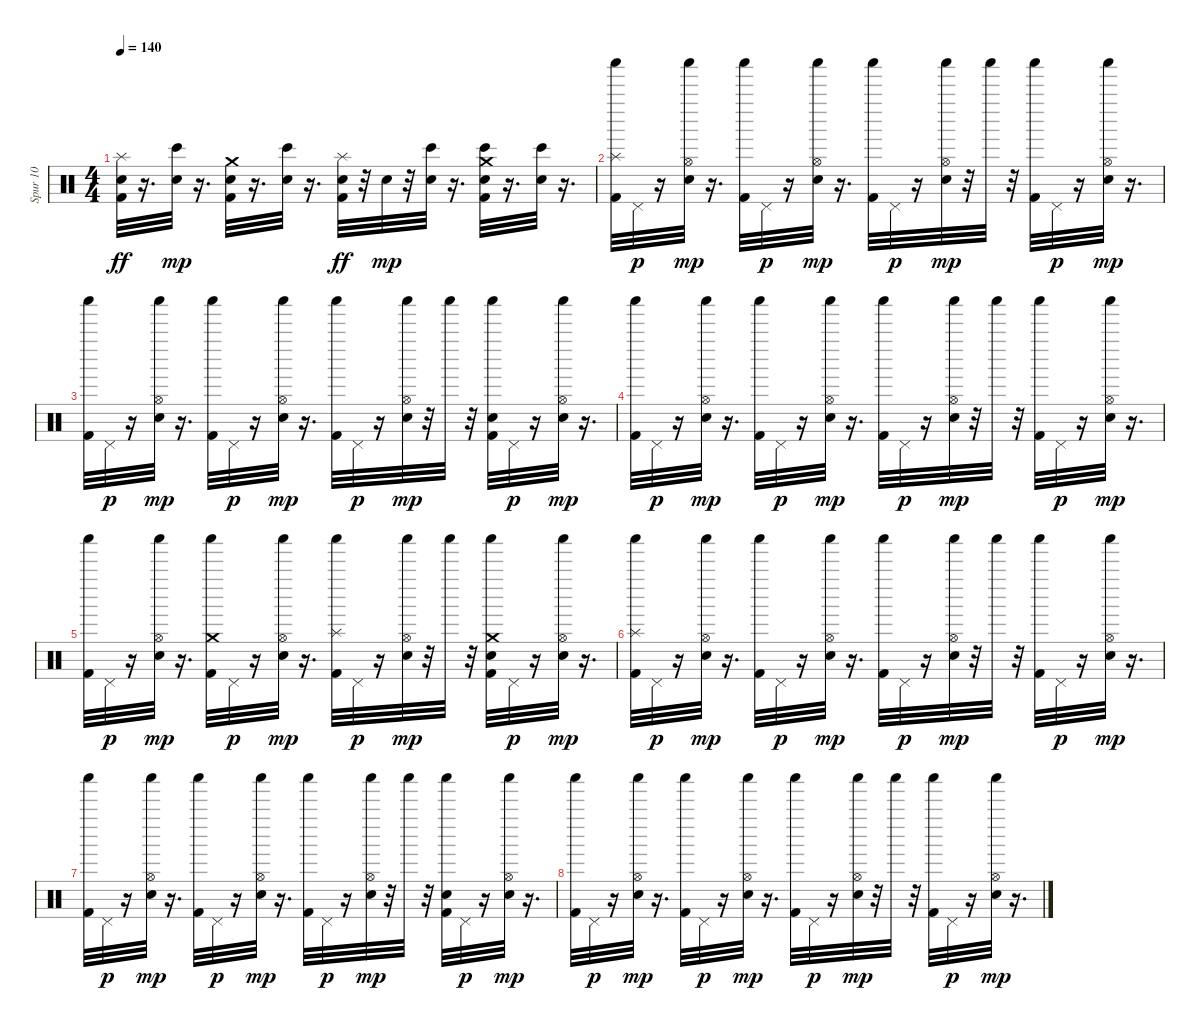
\track ("Spur 10" "Spur 10") {instrument percussion}
\staff {score}
\articulation defaults
\ts (4 4)
\tempo 140
\clef neutral
\ks c
("Kick (hit) 2" "Hand Clap (hit)" "Splash (hit)").32{dy ff} r.16{d} ("Bongo High (hit)" "Hand Clap (hit)").32{dy mp} r.16{d} ("Kick (hit) 2" "Hand Clap (hit)" "Crash medium (hit)").32 r.16{d} ("Bongo High (hit)" "Hand Clap (hit)").32 r.16{d} ("Kick (hit) 2" "Hand Clap (hit)" "Splash (hit)").32{dy ff} r.32 "Hand Clap (hit)".32{dy mp} r.32 ("Bongo High (hit)" "Hand Clap (hit)").32 r.16{d} ("Bongo High (hit)" "Kick (hit) 2" "Hand Clap (hit)" "Crash medium (hit)").32 r.16{d} ("Bongo High (hit)" "Hand Clap (hit)").32 r.16{d} |
("Kick (hit) 2" "Splash (hit)" "Shaker (hit)").32 "Pedal Hi-Hat (hit)".32{dy p} r.16 ("Hand Clap (hit)" "Hi-Hat (open)" "Shaker (hit)").32{dy mp} r.16{d} ("Kick (hit) 2" "Shaker (hit)").32 "Pedal Hi-Hat (hit)".32{dy p} r.16 ("Hand Clap (hit)" "Hi-Hat (open)" "Shaker (hit)").32{dy mp} r.16{d} ("Kick (hit) 2" "Shaker (hit)").32 "Pedal Hi-Hat (hit)".32{dy p} r.16 ("Hand Clap (hit)" "Hi-Hat (open)" "Shaker (hit)").32{dy mp} r.32 "Shaker (hit)".32 r.32 ("Kick (hit) 2" "Shaker (hit)").32 "Pedal Hi-Hat (hit)".32{dy p} r.16 ("Hand Clap (hit)" "Hi-Hat (open)" "Shaker (hit)").32{dy mp} r.16{d} |
("Kick (hit) 2" "Shaker (hit)").32 "Pedal Hi-Hat (hit)".32{dy p} r.16 ("Hand Clap (hit)" "Hi-Hat (open)" "Shaker (hit)").32{dy mp} r.16{d} ("Kick (hit) 2" "Shaker (hit)").32 "Pedal Hi-Hat (hit)".32{dy p} r.16 ("Hand Clap (hit)" "Hi-Hat (open)" "Shaker (hit)").32{dy mp} r.16{d} ("Kick (hit) 2" "Shaker (hit)").32 "Pedal Hi-Hat (hit)".32{dy p} r.16 ("Hand Clap (hit)" "Hi-Hat (open)" "Shaker (hit)").32{dy mp} r.32 "Shaker (hit)".32 r.32 ("Kick (hit) 2" "Hand Clap (hit)" "Shaker (hit)").32 "Pedal Hi-Hat (hit)".32{dy p} r.16 ("Hand Clap (hit)" "Hi-Hat (open)" "Shaker (hit)").32{dy mp} r.16{d} |
("Kick (hit) 2" "Shaker (hit)").32 "Pedal Hi-Hat (hit)".32{dy p} r.16 ("Hand Clap (hit)" "Hi-Hat (open)" "Shaker (hit)").32{dy mp} r.16{d} ("Kick (hit) 2" "Shaker (hit)").32 "Pedal Hi-Hat (hit)".32{dy p} r.16 ("Hand Clap (hit)" "Hi-Hat (open)" "Shaker (hit)").32{dy mp} r.16{d} ("Kick (hit) 2" "Shaker (hit)").32 "Pedal Hi-Hat (hit)".32{dy p} r.16 ("Hand Clap (hit)" "Hi-Hat (open)" "Shaker (hit)").32{dy mp} r.32 "Shaker (hit)".32 r.32 ("Kick (hit) 2" "Shaker (hit)").32 "Pedal Hi-Hat (hit)".32{dy p} r.16 ("Hand Clap (hit)" "Hi-Hat (open)" "Shaker (hit)").32{dy mp} r.16{d} |
("Kick (hit) 2" "Shaker (hit)").32 "Pedal Hi-Hat (hit)".32{dy p} r.16 ("Hand Clap (hit)" "Hi-Hat (open)" "Shaker (hit)").32{dy mp} r.16{d} ("Kick (hit) 2" "Crash medium (hit)" "Shaker (hit)").32 "Pedal Hi-Hat (hit)".32{dy p} r.16 ("Hand Clap (hit)" "Hi-Hat (open)" "Shaker (hit)").32{dy mp} r.16{d} ("Kick (hit) 2" "Splash (hit)" "Shaker (hit)").32 "Pedal Hi-Hat (hit)".32{dy p} r.16 ("Hand Clap (hit)" "Hi-Hat (open)" "Shaker (hit)").32{dy mp} r.32 "Shaker (hit)".32 r.32 ("Kick (hit) 2" "Hand Clap (hit)" "Crash medium (hit)" "Shaker (hit)").32 "Pedal Hi-Hat (hit)".32{dy p} r.16 ("Hand Clap (hit)" "Hi-Hat (open)" "Shaker (hit)").32{dy mp} r.16{d} |
("Kick (hit) 2" "Splash (hit)" "Shaker (hit)").32 "Pedal Hi-Hat (hit)".32{dy p} r.16 ("Hand Clap (hit)" "Hi-Hat (open)" "Shaker (hit)").32{dy mp} r.16{d} ("Kick (hit) 2" "Shaker (hit)").32 "Pedal Hi-Hat (hit)".32{dy p} r.16 ("Hand Clap (hit)" "Hi-Hat (open)" "Shaker (hit)").32{dy mp} r.16{d} ("Kick (hit) 2" "Shaker (hit)").32 "Pedal Hi-Hat (hit)".32{dy p} r.16 ("Hand Clap (hit)" "Hi-Hat (open)" "Shaker (hit)").32{dy mp} r.32 "Shaker (hit)".32 r.32 ("Kick (hit) 2" "Shaker (hit)").32 "Pedal Hi-Hat (hit)".32{dy p} r.16 ("Hand Clap (hit)" "Hi-Hat (open)" "Shaker (hit)").32{dy mp} r.16{d} |
("Kick (hit) 2" "Shaker (hit)").32 "Pedal Hi-Hat (hit)".32{dy p} r.16 ("Hand Clap (hit)" "Hi-Hat (open)" "Shaker (hit)").32{dy mp} r.16{d} ("Kick (hit) 2" "Shaker (hit)").32 "Pedal Hi-Hat (hit)".32{dy p} r.16 ("Hand Clap (hit)" "Hi-Hat (open)" "Shaker (hit)").32{dy mp} r.16{d} ("Kick (hit) 2" "Shaker (hit)").32 "Pedal Hi-Hat (hit)".32{dy p} r.16 ("Hand Clap (hit)" "Hi-Hat (open)" "Shaker (hit)").32{dy mp} r.32 "Shaker (hit)".32 r.32 ("Kick (hit) 2" "Hand Clap (hit)" "Shaker (hit)").32 "Pedal Hi-Hat (hit)".32{dy p} r.16 ("Hand Clap (hit)" "Hi-Hat (open)" "Shaker (hit)").32{dy mp} r.16{d} |
("Kick (hit) 2" "Shaker (hit)").32 "Pedal Hi-Hat (hit)".32{dy p} r.16 ("Hand Clap (hit)" "Hi-Hat (open)" "Shaker (hit)").32{dy mp} r.16{d} ("Kick (hit) 2" "Shaker (hit)").32 "Pedal Hi-Hat (hit)".32{dy p} r.16 ("Hand Clap (hit)" "Hi-Hat (open)" "Shaker (hit)").32{dy mp} r.16{d} ("Kick (hit) 2" "Shaker (hit)").32 "Pedal Hi-Hat (hit)".32{dy p} r.16 ("Hand Clap (hit)" "Hi-Hat (open)" "Shaker (hit)").32{dy mp} r.32 "Shaker (hit)".32 r.32 ("Kick (hit) 2" "Shaker (hit)").32 "Pedal Hi-Hat (hit)".32{dy p} r.16 ("Hand Clap (hit)" "Hi-Hat (open)" "Shaker (hit)").32{dy mp} r.16{d}
